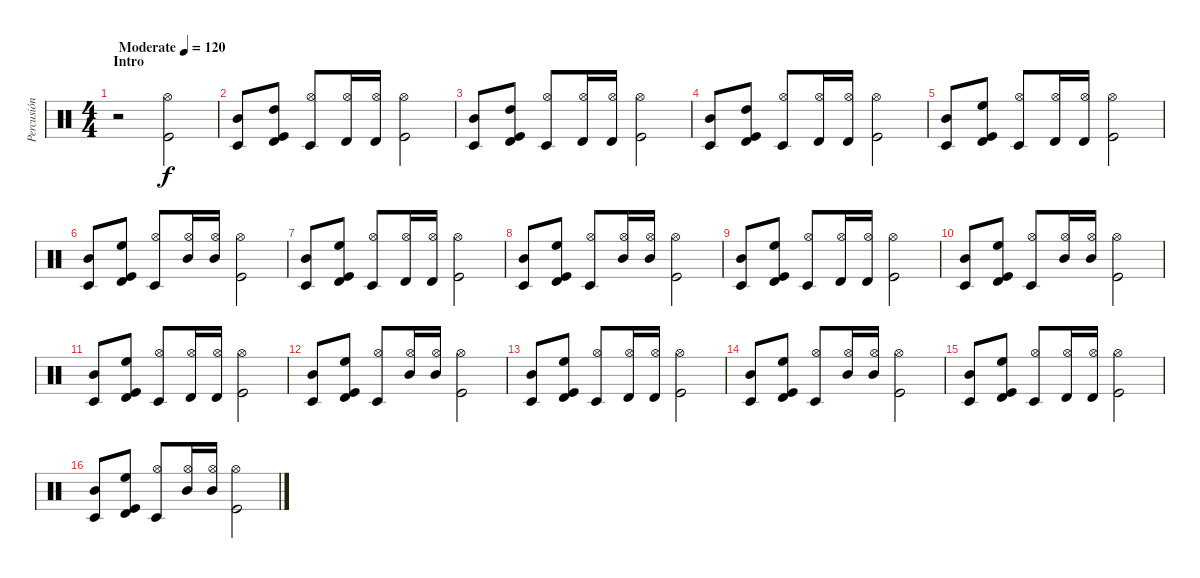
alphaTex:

\track ("Percusión" "Percusión") {instrument percussion}
\staff {score}
\articulation defaults
\ts (4 4)
\section ("" "Intro")
\tempo (120 "Moderate")
\clef neutral
\ks c
r.2{dy f volume 7} ("Hi-Hat (open)" "Kick (hit)").2 |
("Mid Tom (hit)" "Timbale low (hit)").8 ("High Tom (hit)" "Timbale high (hit)" "Kick (hit)").8 ("Hi-Hat (open)" "Timbale low (hit)").8 ("Hi-Hat (open)" "Timbale high (hit)").16 ("Hi-Hat (open)" "Timbale high (hit)").16 ("Hi-Hat (open)" "Kick (hit)").2 |
("Mid Tom (hit)" "Timbale low (hit)").8 ("High Tom (hit)" "Timbale high (hit)" "Kick (hit)").8 ("Hi-Hat (open)" "Timbale low (hit)").8 ("Hi-Hat (open)" "Timbale high (hit)").16 ("Hi-Hat (open)" "Timbale high (hit)").16 ("Hi-Hat (open)" "Kick (hit)").2 |
("Mid Tom (hit)" "Timbale low (hit)").8 ("High Tom (hit)" "Timbale high (hit)" "Kick (hit)").8 ("Hi-Hat (open)" "Timbale low (hit)").8 ("Hi-Hat (open)" "Timbale high (hit)").16 ("Hi-Hat (open)" "Timbale high (hit)").16 ("Hi-Hat (open)" "Kick (hit)").2 |
("Mid Tom (hit)" "Timbale low (hit)").8{volume 11} ("High Floor Tom (hit)" "Timbale high (hit)" "Kick (hit)").8 ("Hi-Hat (open)" "Timbale low (hit)").8 ("Hi-Hat (open)" "Timbale high (hit)").16 ("Hi-Hat (open)" "Timbale high (hit)").16 ("Hi-Hat (open)" "Kick (hit)").2 |
("Mid Tom (hit)" "Timbale low (hit)").8 ("High Floor Tom (hit)" "Timbale high (hit)" "Kick (hit)").8 ("Hi-Hat (open)" "Timbale low (hit)").8 ("Hi-Hat (open)" "Mid Tom (hit)").16 ("Hi-Hat (open)" "Mid Tom (hit)").16 ("Hi-Hat (open)" "Kick (hit)").2 |
("Mid Tom (hit)" "Timbale low (hit)").8{volume 11} ("High Floor Tom (hit)" "Timbale high (hit)" "Kick (hit)").8 ("Hi-Hat (open)" "Timbale low (hit)").8 ("Hi-Hat (open)" "Timbale high (hit)").16 ("Hi-Hat (open)" "Timbale high (hit)").16 ("Hi-Hat (open)" "Kick (hit)").2 |
("Mid Tom (hit)" "Timbale low (hit)").8 ("High Floor Tom (hit)" "Timbale high (hit)" "Kick (hit)").8 ("Hi-Hat (open)" "Timbale low (hit)").8 ("Hi-Hat (open)" "Mid Tom (hit)").16 ("Hi-Hat (open)" "Mid Tom (hit)").16 ("Hi-Hat (open)" "Kick (hit)").2 |
("Mid Tom (hit)" "Timbale low (hit)").8{volume 11} ("High Floor Tom (hit)" "Timbale high (hit)" "Kick (hit)").8 ("Hi-Hat (open)" "Timbale low (hit)").8 ("Hi-Hat (open)" "Timbale high (hit)").16 ("Hi-Hat (open)" "Timbale high (hit)").16 ("Hi-Hat (open)" "Kick (hit)").2 |
("Mid Tom (hit)" "Timbale low (hit)").8 ("High Floor Tom (hit)" "Timbale high (hit)" "Kick (hit)").8 ("Hi-Hat (open)" "Timbale low (hit)").8 ("Hi-Hat (open)" "Mid Tom (hit)").16 ("Hi-Hat (open)" "Mid Tom (hit)").16 ("Hi-Hat (open)" "Kick (hit)").2 |
("Mid Tom (hit)" "Timbale low (hit)").8{volume 11} ("High Floor Tom (hit)" "Timbale high (hit)" "Kick (hit)").8 ("Hi-Hat (open)" "Timbale low (hit)").8 ("Hi-Hat (open)" "Timbale high (hit)").16 ("Hi-Hat (open)" "Timbale high (hit)").16 ("Hi-Hat (open)" "Kick (hit)").2 |
("Mid Tom (hit)" "Timbale low (hit)").8 ("High Floor Tom (hit)" "Timbale high (hit)" "Kick (hit)").8 ("Hi-Hat (open)" "Timbale low (hit)").8 ("Hi-Hat (open)" "Mid Tom (hit)").16 ("Hi-Hat (open)" "Mid Tom (hit)").16 ("Hi-Hat (open)" "Kick (hit)").2 |
("Mid Tom (hit)" "Timbale low (hit)").8{volume 11} ("High Floor Tom (hit)" "Timbale high (hit)" "Kick (hit)").8 ("Hi-Hat (open)" "Timbale low (hit)").8 ("Hi-Hat (open)" "Timbale high (hit)").16 ("Hi-Hat (open)" "Timbale high (hit)").16 ("Hi-Hat (open)" "Kick (hit)").2 |
("Mid Tom (hit)" "Timbale low (hit)").8 ("High Floor Tom (hit)" "Timbale high (hit)" "Kick (hit)").8 ("Hi-Hat (open)" "Timbale low (hit)").8 ("Hi-Hat (open)" "Mid Tom (hit)").16 ("Hi-Hat (open)" "Mid Tom (hit)").16 ("Hi-Hat (open)" "Kick (hit)").2 |
("Mid Tom (hit)" "Timbale low (hit)").8{volume 11} ("High Floor Tom (hit)" "Timbale high (hit)" "Kick (hit)").8 ("Hi-Hat (open)" "Timbale low (hit)").8 ("Hi-Hat (open)" "Timbale high (hit)").16 ("Hi-Hat (open)" "Timbale high (hit)").16 ("Hi-Hat (open)" "Kick (hit)").2 |
("Mid Tom (hit)" "Timbale low (hit)").8 ("High Floor Tom (hit)" "Timbale high (hit)" "Kick (hit)").8 ("Hi-Hat (open)" "Timbale low (hit)").8 ("Hi-Hat (open)" "Mid Tom (hit)").16 ("Hi-Hat (open)" "Mid Tom (hit)").16 ("Hi-Hat (open)" "Kick (hit)").2
